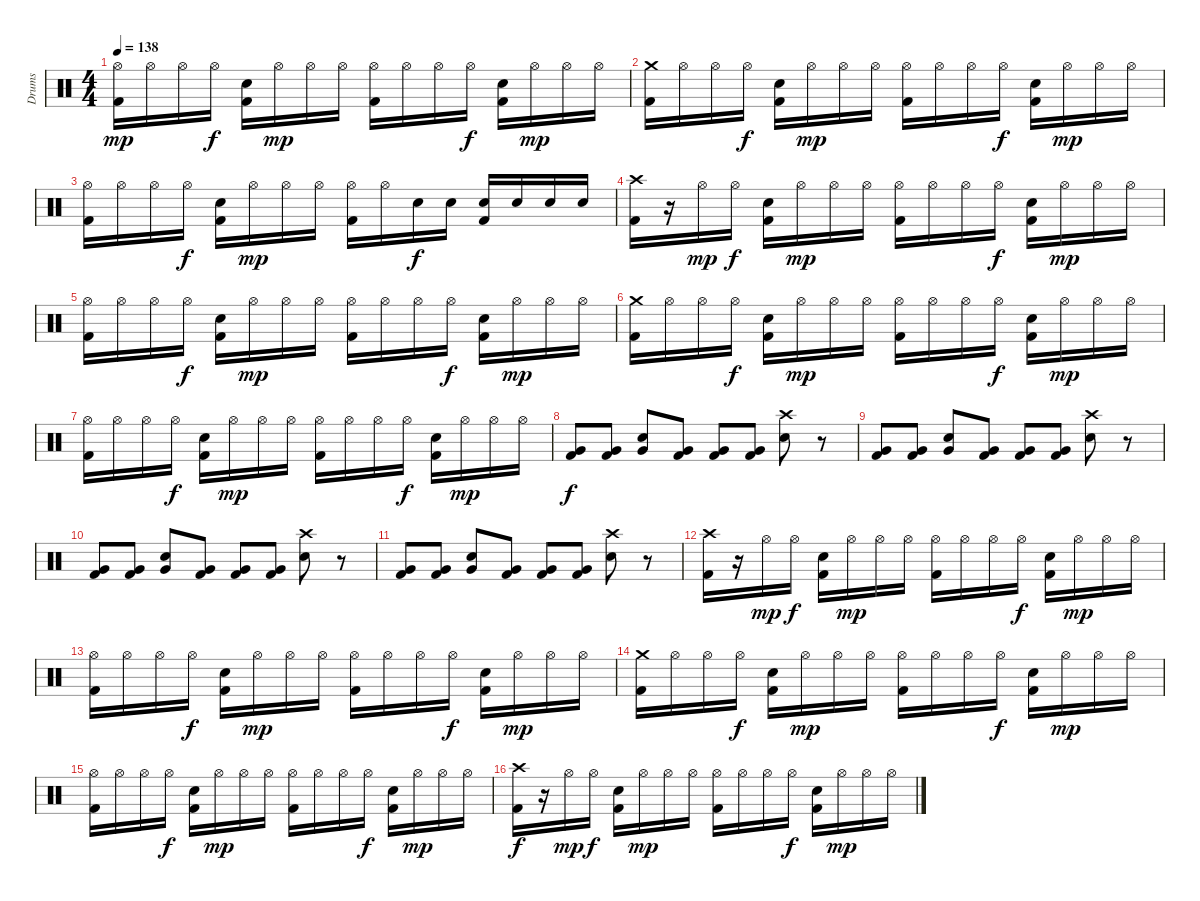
\track ("Drums" "Drums") {instrument percussion}
\staff {score}
\articulation defaults
\ts (4 4)
\tempo 138
\clef neutral
\ks c
("Hi-Hat (open)" "Kick (hit) 2").16{dy mp} "Hi-Hat (open)".16 "Hi-Hat (open)".16 "Hi-Hat (open)".16{dy f} ("Electric Snare (hit)" "Kick (hit) 2").16 "Hi-Hat (open)".16{dy mp} "Hi-Hat (open)".16 "Hi-Hat (open)".16 ("Hi-Hat (open)" "Kick (hit) 2").16 "Hi-Hat (open)".16 "Hi-Hat (open)".16 "Hi-Hat (open)".16{dy f} ("Electric Snare (hit)" "Kick (hit) 2").16 "Hi-Hat (open)".16{dy mp} "Hi-Hat (open)".16 "Hi-Hat (open)".16 |
("Crash medium (hit)" "Kick (hit) 2").16 "Hi-Hat (open)".16 "Hi-Hat (open)".16 "Hi-Hat (open)".16{dy f} ("Electric Snare (hit)" "Kick (hit) 2").16 "Hi-Hat (open)".16{dy mp} "Hi-Hat (open)".16 "Hi-Hat (open)".16 ("Hi-Hat (open)" "Kick (hit) 2").16 "Hi-Hat (open)".16 "Hi-Hat (open)".16 "Hi-Hat (open)".16{dy f} ("Electric Snare (hit)" "Kick (hit) 2").16 "Hi-Hat (open)".16{dy mp} "Hi-Hat (open)".16 "Hi-Hat (open)".16 |
("Hi-Hat (open)" "Kick (hit) 2").16 "Hi-Hat (open)".16 "Hi-Hat (open)".16 "Hi-Hat (open)".16{dy f} ("Electric Snare (hit)" "Kick (hit) 2").16 "Hi-Hat (open)".16{dy mp} "Hi-Hat (open)".16 "Hi-Hat (open)".16 ("Hi-Hat (open)" "Kick (hit) 2").16 "Hi-Hat (open)".16 "Electric Snare (hit)".16{dy f} "Electric Snare (hit)".16 ("Electric Snare (hit)" "Kick (hit) 2").16 "Electric Snare (hit)".16 "Electric Snare (hit)".16 "Electric Snare (hit)".16 |
("Crash high (hit)" "Kick (hit) 2").16 r.16 "Hi-Hat (open)".16{dy mp} "Hi-Hat (open)".16{dy f} ("Electric Snare (hit)" "Kick (hit) 2").16 "Hi-Hat (open)".16{dy mp} "Hi-Hat (open)".16 "Hi-Hat (open)".16 ("Hi-Hat (open)" "Kick (hit) 2").16 "Hi-Hat (open)".16 "Hi-Hat (open)".16 "Hi-Hat (open)".16{dy f} ("Electric Snare (hit)" "Kick (hit) 2").16 "Hi-Hat (open)".16{dy mp} "Hi-Hat (open)".16 "Hi-Hat (open)".16 |
("Hi-Hat (open)" "Kick (hit) 2").16 "Hi-Hat (open)".16 "Hi-Hat (open)".16 "Hi-Hat (open)".16{dy f} ("Electric Snare (hit)" "Kick (hit) 2").16 "Hi-Hat (open)".16{dy mp} "Hi-Hat (open)".16 "Hi-Hat (open)".16 ("Hi-Hat (open)" "Kick (hit) 2").16 "Hi-Hat (open)".16 "Hi-Hat (open)".16 "Hi-Hat (open)".16{dy f} ("Electric Snare (hit)" "Kick (hit) 2").16 "Hi-Hat (open)".16{dy mp} "Hi-Hat (open)".16 "Hi-Hat (open)".16 |
("Crash medium (hit)" "Kick (hit) 2").16 "Hi-Hat (open)".16 "Hi-Hat (open)".16 "Hi-Hat (open)".16{dy f} ("Electric Snare (hit)" "Kick (hit) 2").16 "Hi-Hat (open)".16{dy mp} "Hi-Hat (open)".16 "Hi-Hat (open)".16 ("Hi-Hat (open)" "Kick (hit) 2").16 "Hi-Hat (open)".16 "Hi-Hat (open)".16 "Hi-Hat (open)".16{dy f} ("Electric Snare (hit)" "Kick (hit) 2").16 "Hi-Hat (open)".16{dy mp} "Hi-Hat (open)".16 "Hi-Hat (open)".16 |
("Hi-Hat (open)" "Kick (hit) 2").16 "Hi-Hat (open)".16 "Hi-Hat (open)".16 "Hi-Hat (open)".16{dy f} ("Electric Snare (hit)" "Kick (hit) 2").16 "Hi-Hat (open)".16{dy mp} "Hi-Hat (open)".16 "Hi-Hat (open)".16 ("Hi-Hat (open)" "Kick (hit) 2").16 "Hi-Hat (open)".16 "Hi-Hat (open)".16 "Hi-Hat (open)".16{dy f} ("Electric Snare (hit)" "Kick (hit) 2").16 "Hi-Hat (open)".16{dy mp} "Hi-Hat (open)".16 "Hi-Hat (open)".16 |
("Very Low Tom (hit)" "Kick (hit) 2").8{dy f} ("Very Low Tom (hit)" "Kick (hit) 2").8 ("Very Low Tom (hit)" "Electric Snare (hit)").8 ("Very Low Tom (hit)" "Kick (hit) 2").8 ("Very Low Tom (hit)" "Kick (hit) 2").8 ("Very Low Tom (hit)" "Kick (hit) 2").8 ("Crash high (hit)" "Electric Snare (hit)").8 r.8 |
("Very Low Tom (hit)" "Kick (hit) 2").8 ("Very Low Tom (hit)" "Kick (hit) 2").8 ("Very Low Tom (hit)" "Electric Snare (hit)").8 ("Very Low Tom (hit)" "Kick (hit) 2").8 ("Very Low Tom (hit)" "Kick (hit) 2").8 ("Very Low Tom (hit)" "Kick (hit) 2").8 ("Crash high (hit)" "Electric Snare (hit)").8 r.8 |
("Very Low Tom (hit)" "Kick (hit) 2").8 ("Very Low Tom (hit)" "Kick (hit) 2").8 ("Very Low Tom (hit)" "Electric Snare (hit)").8 ("Very Low Tom (hit)" "Kick (hit) 2").8 ("Very Low Tom (hit)" "Kick (hit) 2").8 ("Very Low Tom (hit)" "Kick (hit) 2").8 ("Crash high (hit)" "Electric Snare (hit)").8 r.8 |
("Very Low Tom (hit)" "Kick (hit) 2").8 ("Very Low Tom (hit)" "Kick (hit) 2").8 ("Very Low Tom (hit)" "Electric Snare (hit)").8 ("Very Low Tom (hit)" "Kick (hit) 2").8 ("Very Low Tom (hit)" "Kick (hit) 2").8 ("Very Low Tom (hit)" "Kick (hit) 2").8 ("Crash high (hit)" "Electric Snare (hit)").8 r.8 |
("Crash high (hit)" "Kick (hit) 2").16 r.16 "Hi-Hat (open)".16{dy mp} "Hi-Hat (open)".16{dy f} ("Electric Snare (hit)" "Kick (hit) 2").16 "Hi-Hat (open)".16{dy mp} "Hi-Hat (open)".16 "Hi-Hat (open)".16 ("Hi-Hat (open)" "Kick (hit) 2").16 "Hi-Hat (open)".16 "Hi-Hat (open)".16 "Hi-Hat (open)".16{dy f} ("Electric Snare (hit)" "Kick (hit) 2").16 "Hi-Hat (open)".16{dy mp} "Hi-Hat (open)".16 "Hi-Hat (open)".16 |
("Hi-Hat (open)" "Kick (hit) 2").16 "Hi-Hat (open)".16 "Hi-Hat (open)".16 "Hi-Hat (open)".16{dy f} ("Electric Snare (hit)" "Kick (hit) 2").16 "Hi-Hat (open)".16{dy mp} "Hi-Hat (open)".16 "Hi-Hat (open)".16 ("Hi-Hat (open)" "Kick (hit) 2").16 "Hi-Hat (open)".16 "Hi-Hat (open)".16 "Hi-Hat (open)".16{dy f} ("Electric Snare (hit)" "Kick (hit) 2").16 "Hi-Hat (open)".16{dy mp} "Hi-Hat (open)".16 "Hi-Hat (open)".16 |
("Crash medium (hit)" "Kick (hit) 2").16 "Hi-Hat (open)".16 "Hi-Hat (open)".16 "Hi-Hat (open)".16{dy f} ("Electric Snare (hit)" "Kick (hit) 2").16 "Hi-Hat (open)".16{dy mp} "Hi-Hat (open)".16 "Hi-Hat (open)".16 ("Hi-Hat (open)" "Kick (hit) 2").16 "Hi-Hat (open)".16 "Hi-Hat (open)".16 "Hi-Hat (open)".16{dy f} ("Electric Snare (hit)" "Kick (hit) 2").16 "Hi-Hat (open)".16{dy mp} "Hi-Hat (open)".16 "Hi-Hat (open)".16 |
("Hi-Hat (open)" "Kick (hit) 2").16 "Hi-Hat (open)".16 "Hi-Hat (open)".16 "Hi-Hat (open)".16{dy f} ("Electric Snare (hit)" "Kick (hit) 2").16 "Hi-Hat (open)".16{dy mp} "Hi-Hat (open)".16 "Hi-Hat (open)".16 ("Hi-Hat (open)" "Kick (hit) 2").16 "Hi-Hat (open)".16 "Hi-Hat (open)".16 "Hi-Hat (open)".16{dy f} ("Electric Snare (hit)" "Kick (hit) 2").16 "Hi-Hat (open)".16{dy mp} "Hi-Hat (open)".16 "Hi-Hat (open)".16 |
("Crash high (hit)" "Kick (hit) 2").16{dy f} r.16 "Hi-Hat (open)".16{dy mp} "Hi-Hat (open)".16{dy f} ("Electric Snare (hit)" "Kick (hit) 2").16 "Hi-Hat (open)".16{dy mp} "Hi-Hat (open)".16 "Hi-Hat (open)".16 ("Hi-Hat (open)" "Kick (hit) 2").16 "Hi-Hat (open)".16 "Hi-Hat (open)".16 "Hi-Hat (open)".16{dy f} ("Electric Snare (hit)" "Kick (hit) 2").16 "Hi-Hat (open)".16{dy mp} "Hi-Hat (open)".16 "Hi-Hat (open)".16
